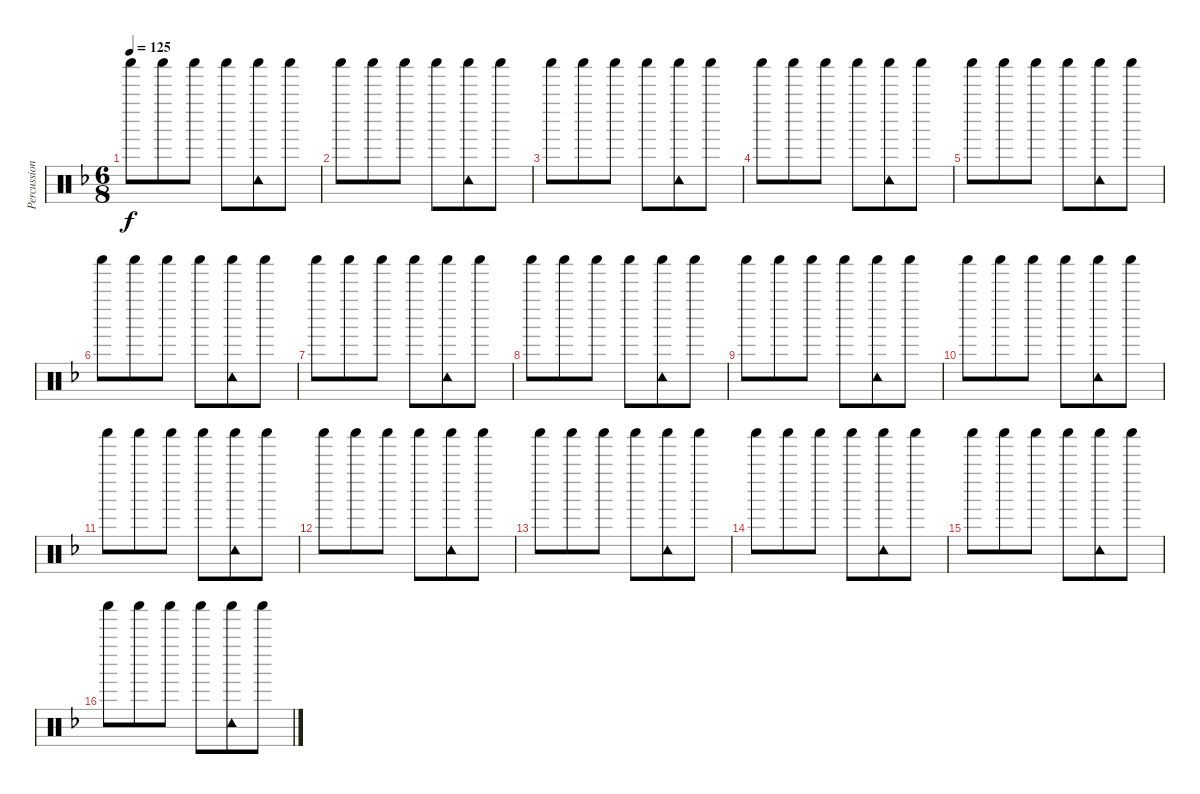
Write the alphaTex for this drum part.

\track ("Percussion" "Percussion") {instrument percussion}
\staff {score}
\articulation defaults
\ts (6 8)
\tempo 125
\clef neutral
\ks f "Shaker (hit)".8{dy f} "Shaker (hit)".8 "Shaker (hit)".8 "Shaker (hit)".8
("Shaker (hit)" "Tambourine (hit)").8 "Shaker (hit)".8 |
"Shaker (hit)".8 "Shaker (hit)".8 "Shaker (hit)".8 "Shaker (hit)".8 ("Shaker (hit)" "Tambourine (hit)").8 "Shaker (hit)".8 |
"Shaker (hit)".8 "Shaker (hit)".8 "Shaker (hit)".8 "Shaker (hit)".8 ("Shaker (hit)" "Tambourine (hit)").8 "Shaker (hit)".8 |
"Shaker (hit)".8 "Shaker (hit)".8 "Shaker (hit)".8 "Shaker (hit)".8 ("Shaker (hit)" "Tambourine (hit)").8 "Shaker (hit)".8 |
"Shaker (hit)".8 "Shaker (hit)".8 "Shaker (hit)".8 "Shaker (hit)".8 ("Shaker (hit)" "Tambourine (hit)").8 "Shaker (hit)".8 |
"Shaker (hit)".8 "Shaker (hit)".8 "Shaker (hit)".8 "Shaker (hit)".8 ("Shaker (hit)" "Tambourine (hit)").8 "Shaker (hit)".8 |
"Shaker (hit)".8 "Shaker (hit)".8 "Shaker (hit)".8 "Shaker (hit)".8 ("Shaker (hit)" "Tambourine (hit)").8 "Shaker (hit)".8 |
"Shaker (hit)".8 "Shaker (hit)".8 "Shaker (hit)".8 "Shaker (hit)".8 ("Shaker (hit)" "Tambourine (hit)").8 "Shaker (hit)".8 |
"Shaker (hit)".8 "Shaker (hit)".8 "Shaker (hit)".8 "Shaker (hit)".8 ("Shaker (hit)" "Tambourine (hit)").8 "Shaker (hit)".8 |
"Shaker (hit)".8 "Shaker (hit)".8 "Shaker (hit)".8 "Shaker (hit)".8 ("Shaker (hit)" "Tambourine (hit)").8 "Shaker (hit)".8 |
"Shaker (hit)".8 "Shaker (hit)".8 "Shaker (hit)".8 "Shaker (hit)".8 ("Shaker (hit)" "Tambourine (hit)").8 "Shaker (hit)".8 |
"Shaker (hit)".8 "Shaker (hit)".8 "Shaker (hit)".8 "Shaker (hit)".8 ("Shaker (hit)" "Tambourine (hit)").8 "Shaker (hit)".8 |
"Shaker (hit)".8 "Shaker (hit)".8 "Shaker (hit)".8 "Shaker (hit)".8 ("Shaker (hit)" "Tambourine (hit)").8 "Shaker (hit)".8 |
"Shaker (hit)".8 "Shaker (hit)".8 "Shaker (hit)".8 "Shaker (hit)".8 ("Shaker (hit)" "Tambourine (hit)").8 "Shaker (hit)".8 |
"Shaker (hit)".8 "Shaker (hit)".8 "Shaker (hit)".8 "Shaker (hit)".8 ("Shaker (hit)" "Tambourine (hit)").8 "Shaker (hit)".8 |
"Shaker (hit)".8 "Shaker (hit)".8 "Shaker (hit)".8 "Shaker (hit)".8 ("Shaker (hit)" "Tambourine (hit)").8 "Shaker (hit)".8
